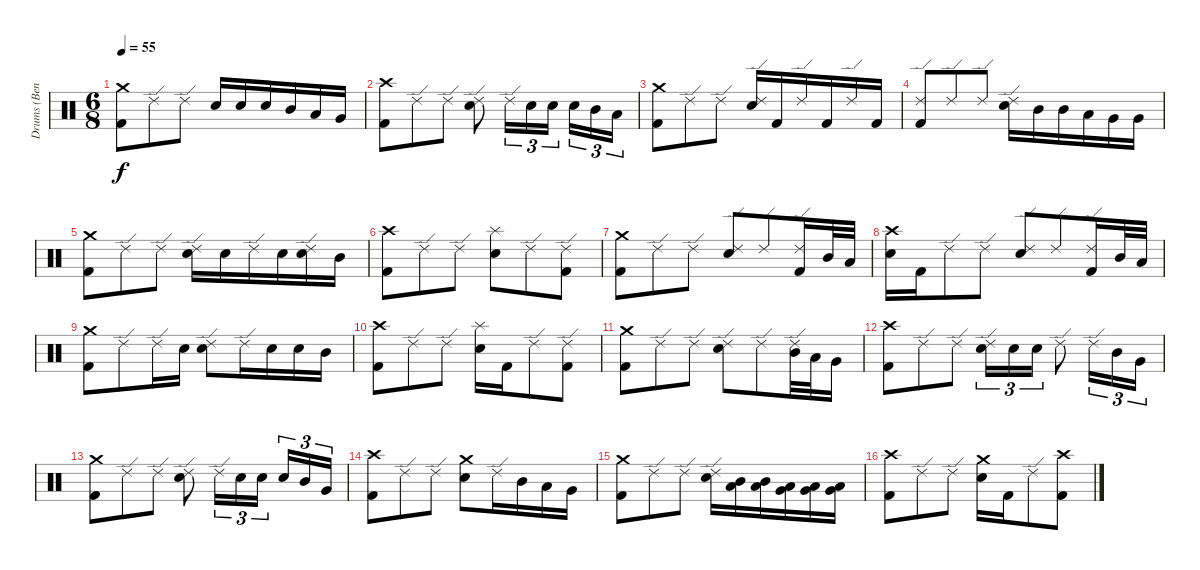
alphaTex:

\track ("Drums (Bengerg)" "Drums (Ben") {instrument percussion}
\staff {score}
\articulation defaults
\ts (6 8)
\tempo 55
\clef neutral
\ks c
("Crash medium (hit)" "Kick (hit) 2").8{dy f} "Ride (edge) 2".8 "Ride (edge) 2".8 "Electric Snare (hit)".16 "Electric Snare (hit)".16 "Electric Snare (hit)".16 "Mid Tom (hit)".16 "Low Tom (hit)".16 "Very Low Tom (hit)".16 |
("Crash high (hit)" "Kick (hit) 2").8 "Ride (edge) 2".8 "Ride (edge) 2".8 ("Ride (edge) 2" "Electric Snare (hit)").8 "Ride (edge) 2".16{tu (3 2)} "Electric Snare (hit)".16{tu (3 2)} "Electric Snare (hit)".16{tu (3 2)} "Electric Snare (hit)".16{tu (3 2)} "Mid Tom (hit)".16{tu (3 2)} "Low Tom (hit)".16{tu (3 2)} |
("Crash medium (hit)" "Kick (hit) 2").8 "Ride (edge) 2".8 "Ride (edge) 2".8 ("Ride (edge) 2" "Electric Snare (hit)").16 "Kick (hit) 2".16 "Ride (edge) 2".16 "Kick (hit) 2".16 "Ride (edge) 2".16 "Kick (hit) 2".16 |
("Ride (edge) 2" "Kick (hit) 2").8 "Ride (edge) 2".8 "Ride (edge) 2".8 ("Ride (edge) 2" "Electric Snare (hit)").16 "Mid Tom (hit)".16 "Mid Tom (hit)".16 "Low Tom (hit)".16 "Very Low Tom (hit)".16 "Very Low Tom (hit)".16 |
("Crash medium (hit)" "Kick (hit) 2").8 "Ride (edge) 2".8 "Ride (edge) 2".8 ("Ride (edge) 2" "Electric Snare (hit)").16 "Electric Snare (hit)".16 "Ride (edge) 2".16 "Electric Snare (hit)".16 ("Ride (edge) 2" "Electric Snare (hit)").16 "Mid Tom (hit)".16 |
("Crash high (hit)" "Kick (hit) 2").8 "Ride (edge) 2".8 "Ride (edge) 2".8 ("Splash (hit)" "Electric Snare (hit)").8 "Ride (edge) 2".8 ("Ride (edge) 2" "Kick (hit) 2").8 |
("Crash medium (hit)" "Kick (hit) 2").8 "Ride (edge) 2".8 "Ride (edge) 2".8 ("Ride (edge) 2" "Electric Snare (hit)").8 "Ride (edge) 2".8 ("Ride (edge) 2" "Kick (hit) 2").16 "Mid Tom (hit)".32 "Low Tom (hit)".32 |
("Crash high (hit)" "Electric Snare (hit)").16 "Kick (hit) 2".16 "Ride (edge) 2".8 "Ride (edge) 2".8 ("Ride (edge) 2" "Electric Snare (hit)").8 "Ride (edge) 2".8 ("Ride (edge) 2" "Kick (hit) 2").16 "Mid Tom (hit)".32 "Low Tom (hit)".32 |
("Crash medium (hit)" "Kick (hit) 2").8 "Ride (edge) 2".8 "Ride (edge) 2".16 "Electric Snare (hit)".16 ("Ride (edge) 2" "Electric Snare (hit)").8 "Ride (edge) 2".16 "Electric Snare (hit)".16 "Electric Snare (hit)".16 "Mid Tom (hit)".16 |
("Crash high (hit)" "Kick (hit) 2").8 "Ride (edge) 2".8 "Ride (edge) 2".8 ("Splash (hit)" "Electric Snare (hit)").16 "Kick (hit) 2".16 "Ride (edge) 2".8 ("Ride (edge) 2" "Kick (hit) 2").8 |
("Crash medium (hit)" "Kick (hit) 2").8 "Ride (edge) 2".8 "Ride (edge) 2".8 ("Ride (edge) 2" "Electric Snare (hit)").8 "Ride (edge) 2".8 ("Ride (edge) 2" "Mid Tom (hit)").32 "Low Tom (hit)".32 "Very Low Tom (hit)".16 |
("Crash high (hit)" "Kick (hit) 2").8 "Ride (edge) 2".8 "Ride (edge) 2".8 ("Ride (edge) 2" "Electric Snare (hit)").16{tu (3 2)} "Electric Snare (hit)".16{tu (3 2)} "Electric Snare (hit)".16{tu (3 2)} "Ride (edge) 2".8 "Ride (edge) 2".16{tu (3 2)} "Mid Tom (hit)".16{tu (3 2)} "Very Low Tom (hit)".16{tu (3 2)} |
("Crash medium (hit)" "Kick (hit) 2").8 "Ride (edge) 2".8 "Ride (edge) 2".8 ("Ride (edge) 2" "Electric Snare (hit)").8 "Ride (edge) 2".16{tu (3 2)} "Electric Snare (hit)".16{tu (3 2)} "Electric Snare (hit)".16{tu (3 2)} "Electric Snare (hit)".16{tu (3 2)} "Mid Tom (hit)".16{tu (3 2)} "Very Low Tom (hit)".16{tu (3 2)} |
("Crash high (hit)" "Kick (hit) 2").8 "Ride (edge) 2".8 "Ride (edge) 2".8 ("Crash medium (hit)" "Electric Snare (hit)").8 "Ride (edge) 2".16 "Mid Tom (hit)".16 "Low Tom (hit)".16 "Very Low Tom (hit)".16 |
("Crash medium (hit)" "Kick (hit) 2").8 "Ride (edge) 2".8 "Ride (edge) 2".8 ("Ride (edge) 2" "Electric Snare (hit)").16 ("Mid Tom (hit)" "Low Tom (hit)").16 ("Mid Tom (hit)" "Low Tom (hit)").16 ("Low Tom (hit)" "Very Low Tom (hit)").16 ("Low Tom (hit)" "Very Low Tom (hit)").16 ("Low Tom (hit)" "Very Low Tom (hit)").16 |
("Crash high (hit)" "Kick (hit) 2").8 "Ride (edge) 2".8 "Ride (edge) 2".8 ("Crash medium (hit)" "Electric Snare (hit)").16 "Kick (hit) 2".16 "Ride (edge) 2".8 ("Crash high (hit)" "Kick (hit) 2").8
